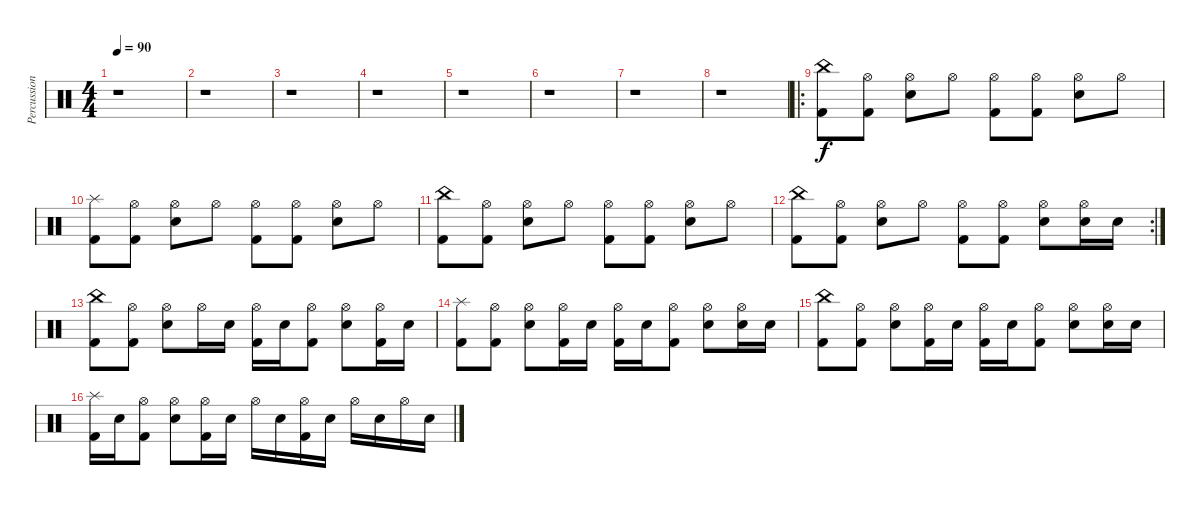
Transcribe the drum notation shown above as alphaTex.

\track ("Percussion" "Percussion") {instrument percussion}
\staff {score}
\articulation defaults
\ts (4 4)
\tempo 90
\clef neutral
\ks c
r.1{dy f} |
r.1 |
r.1 |
r.1 |
r.1 |
r.1 |
r.1 |
r.1 |
\ro
("Kick (hit) 2" "China (hit)").8 ("Kick (hit) 2" "Hi-Hat (open)").8 ("Electric Snare (hit)" "Hi-Hat (open)").8 "Hi-Hat (open)".8 ("Kick (hit) 2" "Hi-Hat (open)").8 ("Kick (hit) 2" "Hi-Hat (open)").8 ("Electric Snare (hit)" "Hi-Hat (open)").8 "Hi-Hat (open)".8 |
("Kick (hit) 2" "Splash (hit)").8 ("Kick (hit) 2" "Hi-Hat (open)").8 ("Electric Snare (hit)" "Hi-Hat (open)").8 "Hi-Hat (open)".8 ("Kick (hit) 2" "Hi-Hat (open)").8 ("Kick (hit) 2" "Hi-Hat (open)").8 ("Electric Snare (hit)" "Hi-Hat (open)").8 "Hi-Hat (open)".8 |
("Kick (hit) 2" "China (hit)").8 ("Kick (hit) 2" "Hi-Hat (open)").8 ("Electric Snare (hit)" "Hi-Hat (open)").8 "Hi-Hat (open)".8 ("Kick (hit) 2" "Hi-Hat (open)").8 ("Kick (hit) 2" "Hi-Hat (open)").8 ("Electric Snare (hit)" "Hi-Hat (open)").8 "Hi-Hat (open)".8 |
\rc 2
("Kick (hit) 2" "China (hit)").8 ("Kick (hit) 2" "Hi-Hat (open)").8 ("Electric Snare (hit)" "Hi-Hat (open)").8 "Hi-Hat (open)".8 ("Kick (hit) 2" "Hi-Hat (open)").8 ("Kick (hit) 2" "Hi-Hat (open)").8 ("Electric Snare (hit)" "Hi-Hat (open)").8 ("Electric Snare (hit)" "Hi-Hat (open)").16 "Electric Snare (hit)".16 |
("Kick (hit) 2" "China (hit)").8 ("Kick (hit) 2" "Hi-Hat (open)").8 ("Electric Snare (hit)" "Hi-Hat (open)").8 "Hi-Hat (open)".16 "Electric Snare (hit)".16 ("Kick (hit) 2" "Hi-Hat (open)").16 "Electric Snare (hit)".16 ("Kick (hit) 2" "Hi-Hat (open)").8 ("Electric Snare (hit)" "Hi-Hat (open)").8 ("Kick (hit) 2" "Hi-Hat (open)").16 "Electric Snare (hit)".16 |
("Kick (hit) 2" "Splash (hit)").8 ("Kick (hit) 2" "Hi-Hat (open)").8 ("Electric Snare (hit)" "Hi-Hat (open)").8 ("Kick (hit) 2" "Hi-Hat (open)").16 "Electric Snare (hit)".16 ("Kick (hit) 2" "Hi-Hat (open)").16 "Electric Snare (hit)".16 ("Kick (hit) 2" "Hi-Hat (open)").8 ("Electric Snare (hit)" "Hi-Hat (open)").8 ("Electric Snare (hit)" "Hi-Hat (open)").16 "Electric Snare (hit)".16 |
("Kick (hit) 2" "China (hit)").8 ("Kick (hit) 2" "Hi-Hat (open)").8 ("Electric Snare (hit)" "Hi-Hat (open)").8 ("Kick (hit) 2" "Hi-Hat (open)").16 "Electric Snare (hit)".16 ("Kick (hit) 2" "Hi-Hat (open)").16 "Electric Snare (hit)".16 ("Kick (hit) 2" "Hi-Hat (open)").8 ("Electric Snare (hit)" "Hi-Hat (open)").8 ("Electric Snare (hit)" "Hi-Hat (open)").16 "Electric Snare (hit)".16 |
("Kick (hit) 2" "Splash (hit)").16 "Electric Snare (hit)".16 ("Kick (hit) 2" "Hi-Hat (open)").8 ("Electric Snare (hit)" "Hi-Hat (open)").8 ("Kick (hit) 2" "Hi-Hat (open)").16 "Electric Snare (hit)".16 "Hi-Hat (open)".16 "Electric Snare (hit)".16 ("Kick (hit) 2" "Hi-Hat (open)").16 "Electric Snare (hit)".16 "Hi-Hat (open)".16 "Electric Snare (hit)".16 "Hi-Hat (open)".16 "Electric Snare (hit)".16
